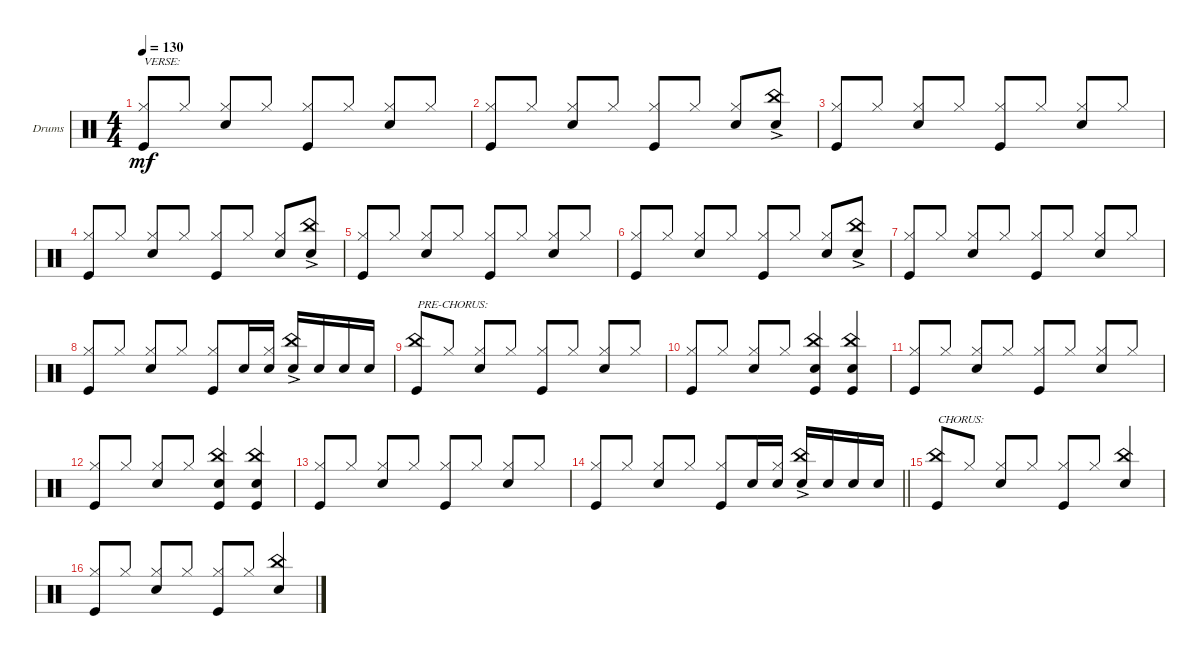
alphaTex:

\defaultSystemsLayout 4
\bracketExtendMode groupsimilarinstruments
\firstSystemTrackNameOrientation horizontal
\otherSystemsTrackNameOrientation horizontal
\track ("Drumkit" "Drums") {instrument percussion}
\staff {score}
\articulation defaults
\ts (4 4)
\tempo 130
\clef neutral
\scale
0.333333
\ks c
("Hi-Hat (closed)" "Kick (hit)").8{txt "VERSE:" dy mf beam invert} "Hi-Hat (closed)".8 ("Hi-Hat (closed)" "Snare (hit) 2").8{beam invert} "Hi-Hat (closed)".8 ("Hi-Hat (closed)" "Kick (hit)").8{beam invert} "Hi-Hat (closed)".8 ("Hi-Hat (closed)" "Snare (hit) 2").8{beam invert} "Hi-Hat (closed)".8 |
\scale
0.333333 ("Hi-Hat (closed)" "Kick (hit)").8{beam invert} "Hi-Hat (closed)".8 ("Hi-Hat (closed)" "Snare (hit) 2").8{beam invert} "Hi-Hat (closed)".8 ("Hi-Hat (closed)" "Kick (hit)").8{beam invert} "Hi-Hat (closed)".8 ("Hi-Hat (closed)" "Snare (hit) 2").8{beam invert} ("Snare (hit) 2" "China (hit)"{ac}).8 |
\scale
0.333333 ("Hi-Hat (closed)" "Kick (hit)").8{beam invert} "Hi-Hat (closed)".8 ("Hi-Hat (closed)" "Snare (hit) 2").8{beam invert} "Hi-Hat (closed)".8 ("Hi-Hat (closed)" "Kick (hit)").8{beam invert} "Hi-Hat (closed)".8 ("Hi-Hat (closed)" "Snare (hit) 2").8{beam invert} "Hi-Hat (closed)".8 |
\scale
0.333333 ("Hi-Hat (closed)" "Kick (hit)").8{beam invert} "Hi-Hat (closed)".8 ("Hi-Hat (closed)" "Snare (hit) 2").8{beam invert} "Hi-Hat (closed)".8 ("Hi-Hat (closed)" "Kick (hit)").8{beam invert} "Hi-Hat (closed)".8 ("Hi-Hat (closed)" "Snare (hit) 2").8{beam invert} ("Snare (hit) 2" "China (hit)"{ac}).8 |
\scale
0.333333 ("Hi-Hat (closed)" "Kick (hit)").8{beam invert} "Hi-Hat (closed)".8 ("Hi-Hat (closed)" "Snare (hit) 2").8{beam invert} "Hi-Hat (closed)".8 ("Hi-Hat (closed)" "Kick (hit)").8{beam invert} "Hi-Hat (closed)".8 ("Hi-Hat (closed)" "Snare (hit) 2").8{beam invert} "Hi-Hat (closed)".8 |
\scale
0.333333 ("Hi-Hat (closed)" "Kick (hit)").8{beam invert} "Hi-Hat (closed)".8 ("Hi-Hat (closed)" "Snare (hit) 2").8{beam invert} "Hi-Hat (closed)".8 ("Hi-Hat (closed)" "Kick (hit)").8{beam invert} "Hi-Hat (closed)".8 ("Hi-Hat (closed)" "Snare (hit) 2").8{beam invert} ("Snare (hit) 2" "China (hit)"{ac}).8 |
\scale
0.333333 ("Hi-Hat (closed)" "Kick (hit)").8{beam invert} "Hi-Hat (closed)".8 ("Hi-Hat (closed)" "Snare (hit) 2").8{beam invert} "Hi-Hat (closed)".8 ("Hi-Hat (closed)" "Kick (hit)").8{beam invert} "Hi-Hat (closed)".8 ("Hi-Hat (closed)" "Snare (hit) 2").8{beam invert} "Hi-Hat (closed)".8 |
\scale
0.333333 ("Hi-Hat (closed)" "Kick (hit)").8{beam invert} "Hi-Hat (closed)".8 ("Hi-Hat (closed)" "Snare (hit) 2").8{beam invert} "Hi-Hat (closed)".8 ("Hi-Hat (closed)" "Kick (hit)").8{beam invert} "Snare (hit) 2".16 ("Hi-Hat (closed)" "Snare (hit) 2").16 ("Snare (hit) 2" "China (hit)"{ac}).16{beam invert} "Snare (hit) 2".16 "Snare (hit) 2".16 "Snare (hit) 2".16 |
\scale
0.333333 ("Kick (hit)" "China (hit)").8{txt "PRE-CHORUS:"} "Hi-Hat (closed)".8 ("Hi-Hat (closed)" "Snare (hit) 2").8{beam invert} "Hi-Hat (closed)".8 ("Hi-Hat (closed)" "Kick (hit)").8{beam invert} "Hi-Hat (closed)".8 ("Hi-Hat (closed)" "Snare (hit) 2").8{beam invert} "Hi-Hat (closed)".8 |
\scale
0.333333 ("Hi-Hat (closed)" "Kick (hit)").8{beam invert} "Hi-Hat (closed)".8 ("Hi-Hat (closed)" "Snare (hit) 2").8{beam invert} "Hi-Hat (closed)".8 ("Snare (hit) 2" "China (hit)" "Kick (hit)").4{beam invert} ("China (hit)" "Snare (hit) 2" "Kick (hit)").4{beam invert} |
\scale
0.333333 ("Hi-Hat (closed)" "Kick (hit)").8{beam invert} "Hi-Hat (closed)".8 ("Hi-Hat (closed)" "Snare (hit) 2").8{beam invert} "Hi-Hat (closed)".8 ("Hi-Hat (closed)" "Kick (hit)").8{beam invert} "Hi-Hat (closed)".8 ("Hi-Hat (closed)" "Snare (hit) 2").8{beam invert} "Hi-Hat (closed)".8 |
\scale
0.333333 ("Hi-Hat (closed)" "Kick (hit)").8{beam invert} "Hi-Hat (closed)".8 ("Hi-Hat (closed)" "Snare (hit) 2").8{beam invert} "Hi-Hat (closed)".8 ("Snare (hit) 2" "China (hit)" "Kick (hit)").4{beam invert} ("China (hit)" "Snare (hit) 2" "Kick (hit)").4{beam invert} |
("Hi-Hat (closed)" "Kick (hit)").8{beam invert} "Hi-Hat (closed)".8 ("Hi-Hat (closed)" "Snare (hit) 2").8{beam invert} "Hi-Hat (closed)".8 ("Hi-Hat (closed)" "Kick (hit)").8{beam invert} "Hi-Hat (closed)".8 ("Hi-Hat (closed)" "Snare (hit) 2").8{beam invert} "Hi-Hat (closed)".8 |
\barLineRight lightlight
("Hi-Hat (closed)" "Kick (hit)").8{beam invert} "Hi-Hat (closed)".8 ("Hi-Hat (closed)" "Snare (hit) 2").8{beam invert} "Hi-Hat (closed)".8 ("Hi-Hat (closed)" "Kick (hit)").8{beam invert} "Snare (hit) 2".16 ("Hi-Hat (closed)" "Snare (hit) 2").16 ("Snare (hit) 2" "China (hit)"{ac}).16{beam invert} "Snare (hit) 2".16 "Snare (hit) 2".16 "Snare (hit) 2".16 |
\scale
0.333333 ("China (hit)" "Kick (hit)").8{txt "CHORUS:"} "Hi-Hat (closed)".8 ("Hi-Hat (closed)" "Snare (hit) 2").8{beam invert} "Hi-Hat (closed)".8 ("Hi-Hat (closed)" "Kick (hit)").8{beam invert} "Hi-Hat (closed)".8 ("Snare (hit) 2" "China (hit)").4{beam invert} |
\scale
0.333333 ("Hi-Hat (closed)" "Kick (hit)").8{beam invert} "Hi-Hat (closed)".8 ("Hi-Hat (closed)" "Snare (hit) 2").8{beam invert} "Hi-Hat (closed)".8 ("Hi-Hat (closed)" "Kick (hit)").8{beam invert} "Hi-Hat (closed)".8 ("Snare (hit) 2" "China (hit)").4{beam invert}
